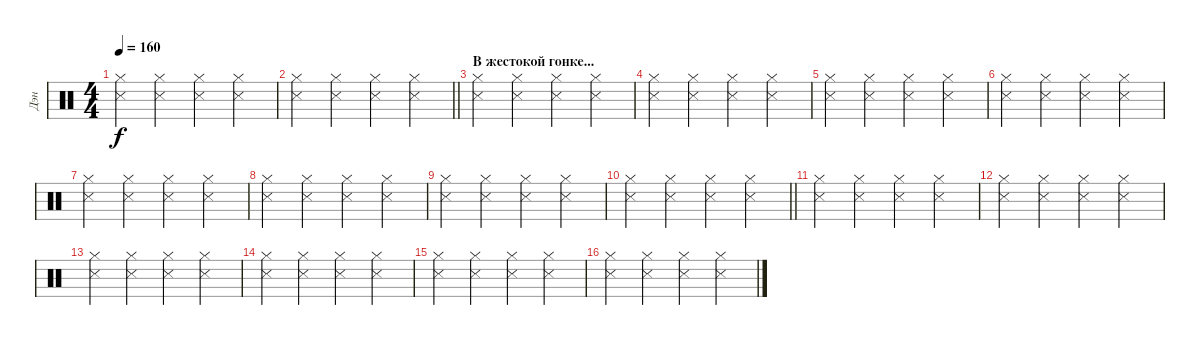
\track ("Дэн" "Дэн") {instrument percussion}
\staff {score}
\articulation defaults
\ts (4 4)
\tempo 160
\clef neutral
\ks c
("Hi-Hat (closed)" "Snare (side stick) 3").4{dy f} ("Hi-Hat (closed)" "Snare (side stick) 3").4 ("Hi-Hat (closed)" "Snare (side stick) 3").4 ("Hi-Hat (closed)" "Snare (side stick) 3").4 |
\barLineRight lightlight
("Hi-Hat (closed)" "Snare (side stick) 3").4 ("Hi-Hat (closed)" "Snare (side stick) 3").4 ("Hi-Hat (closed)" "Snare (side stick) 3").4 ("Hi-Hat (closed)" "Snare (side stick) 3").4 |
\section ("" "В жестокой гонке...")
("Hi-Hat (closed)" "Snare (side stick) 3").4 ("Hi-Hat (closed)" "Snare (side stick) 3").4 ("Hi-Hat (closed)" "Snare (side stick) 3").4 ("Hi-Hat (closed)" "Snare (side stick) 3").4 |
("Hi-Hat (closed)" "Snare (side stick) 3").4 ("Hi-Hat (closed)" "Snare (side stick) 3").4 ("Hi-Hat (closed)" "Snare (side stick) 3").4 ("Hi-Hat (closed)" "Snare (side stick) 3").4 |
("Hi-Hat (closed)" "Snare (side stick) 3").4 ("Hi-Hat (closed)" "Snare (side stick) 3").4 ("Hi-Hat (closed)" "Snare (side stick) 3").4 ("Hi-Hat (closed)" "Snare (side stick) 3").4 |
("Hi-Hat (closed)" "Snare (side stick) 3").4 ("Hi-Hat (closed)" "Snare (side stick) 3").4 ("Hi-Hat (closed)" "Snare (side stick) 3").4 ("Hi-Hat (closed)" "Snare (side stick) 3").4 |
("Hi-Hat (closed)" "Snare (side stick) 3").4 ("Hi-Hat (closed)" "Snare (side stick) 3").4 ("Hi-Hat (closed)" "Snare (side stick) 3").4 ("Hi-Hat (closed)" "Snare (side stick) 3").4 |
("Hi-Hat (closed)" "Snare (side stick) 3").4 ("Hi-Hat (closed)" "Snare (side stick) 3").4 ("Hi-Hat (closed)" "Snare (side stick) 3").4 ("Hi-Hat (closed)" "Snare (side stick) 3").4 |
("Hi-Hat (closed)" "Snare (side stick) 3").4 ("Hi-Hat (closed)" "Snare (side stick) 3").4 ("Hi-Hat (closed)" "Snare (side stick) 3").4 ("Hi-Hat (closed)" "Snare (side stick) 3").4 |
\barLineRight lightlight
("Hi-Hat (closed)" "Snare (side stick) 3").4 ("Hi-Hat (closed)" "Snare (side stick) 3").4 ("Hi-Hat (closed)" "Snare (side stick) 3").4 ("Hi-Hat (closed)" "Snare (side stick) 3").4 |
("Hi-Hat (closed)" "Snare (side stick) 3").4 ("Hi-Hat (closed)" "Snare (side stick) 3").4 ("Hi-Hat (closed)" "Snare (side stick) 3").4 ("Hi-Hat (closed)" "Snare (side stick) 3").4 |
("Hi-Hat (closed)" "Snare (side stick) 3").4 ("Hi-Hat (closed)" "Snare (side stick) 3").4 ("Hi-Hat (closed)" "Snare (side stick) 3").4 ("Hi-Hat (closed)" "Snare (side stick) 3").4 |
("Hi-Hat (closed)" "Snare (side stick) 3").4 ("Hi-Hat (closed)" "Snare (side stick) 3").4 ("Hi-Hat (closed)" "Snare (side stick) 3").4 ("Hi-Hat (closed)" "Snare (side stick) 3").4 |
("Hi-Hat (closed)" "Snare (side stick) 3").4 ("Hi-Hat (closed)" "Snare (side stick) 3").4 ("Hi-Hat (closed)" "Snare (side stick) 3").4 ("Hi-Hat (closed)" "Snare (side stick) 3").4 |
("Hi-Hat (closed)" "Snare (side stick) 3").4 ("Hi-Hat (closed)" "Snare (side stick) 3").4 ("Hi-Hat (closed)" "Snare (side stick) 3").4 ("Hi-Hat (closed)" "Snare (side stick) 3").4 |
("Hi-Hat (closed)" "Snare (side stick) 3").4 ("Hi-Hat (closed)" "Snare (side stick) 3").4 ("Hi-Hat (closed)" "Snare (side stick) 3").4 ("Hi-Hat (closed)" "Snare (side stick) 3").4
